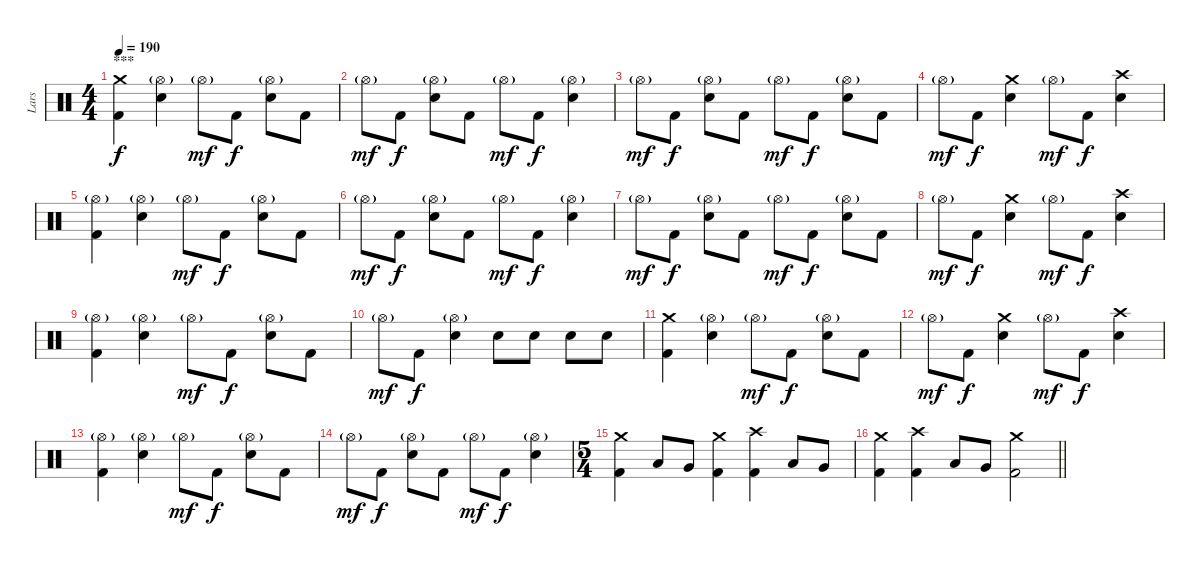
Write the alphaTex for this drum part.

\track ("Lars" "Lars") {instrument percussion}
\staff {score}
\articulation defaults
\ts (4 4)
\section ("" "***")
\tempo 190
\clef neutral
\ks c
("Crash medium (hit)" "Kick (hit) 2").4{dy f} ("Hi-Hat (open)"{g} "Snare (hit) 2").4 "Hi-Hat (open)"{g}.8{dy mf} "Kick (hit) 2".8{dy f} ("Hi-Hat (open)"{g} "Snare (hit) 2").8 "Kick (hit) 2".8 |
"Hi-Hat (open)"{g}.8{dy mf} "Kick (hit) 2".8{dy f} ("Hi-Hat (open)"{g} "Snare (hit) 2").8 "Kick (hit) 2".8 "Hi-Hat (open)"{g}.8{dy mf} "Kick (hit) 2".8{dy f} ("Hi-Hat (open)"{g} "Snare (hit) 2").4 |
"Hi-Hat (open)"{g}.8{dy mf} "Kick (hit) 2".8{dy f} ("Hi-Hat (open)"{g} "Snare (hit) 2").8 "Kick (hit) 2".8 "Hi-Hat (open)"{g}.8{dy mf} "Kick (hit) 2".8{dy f} ("Hi-Hat (open)"{g} "Snare (hit) 2").8 "Kick (hit) 2".8 |
"Hi-Hat (open)"{g}.8{dy mf} "Kick (hit) 2".8{dy f} ("Crash medium (hit)" "Snare (hit) 2").4 "Hi-Hat (open)"{g}.8{dy mf} "Kick (hit) 2".8{dy f} ("Crash high (hit)" "Snare (hit) 2").4 |
("Hi-Hat (open)"{g} "Kick (hit) 2").4 ("Hi-Hat (open)"{g} "Snare (hit) 2").4 "Hi-Hat (open)"{g}.8{dy mf} "Kick (hit) 2".8{dy f} ("Hi-Hat (open)"{g} "Snare (hit) 2").8 "Kick (hit) 2".8 |
"Hi-Hat (open)"{g}.8{dy mf} "Kick (hit) 2".8{dy f} ("Hi-Hat (open)"{g} "Snare (hit) 2").8 "Kick (hit) 2".8 "Hi-Hat (open)"{g}.8{dy mf} "Kick (hit) 2".8{dy f} ("Hi-Hat (open)"{g} "Snare (hit) 2").4 |
"Hi-Hat (open)"{g}.8{dy mf} "Kick (hit) 2".8{dy f} ("Hi-Hat (open)"{g} "Snare (hit) 2").8 "Kick (hit) 2".8 "Hi-Hat (open)"{g}.8{dy mf} "Kick (hit) 2".8{dy f} ("Hi-Hat (open)"{g} "Snare (hit) 2").8 "Kick (hit) 2".8 |
"Hi-Hat (open)"{g}.8{dy mf} "Kick (hit) 2".8{dy f} ("Crash medium (hit)" "Snare (hit) 2").4 "Hi-Hat (open)"{g}.8{dy mf} "Kick (hit) 2".8{dy f} ("Crash high (hit)" "Snare (hit) 2").4 |
("Hi-Hat (open)"{g} "Kick (hit) 2").4 ("Hi-Hat (open)"{g} "Snare (hit) 2").4 "Hi-Hat (open)"{g}.8{dy mf} "Kick (hit) 2".8{dy f} ("Hi-Hat (open)"{g} "Snare (hit) 2").8 "Kick (hit) 2".8 |
"Hi-Hat (open)"{g}.8{dy mf} "Kick (hit) 2".8{dy f} ("Hi-Hat (open)"{g} "Snare (hit) 2").4 "Snare (hit) 2".8 "Snare (hit) 2".8 "Snare (hit) 2".8 "Snare (hit) 2".8 |
("Crash medium (hit)" "Kick (hit) 2").4 ("Hi-Hat (open)"{g} "Snare (hit) 2").4 "Hi-Hat (open)"{g}.8{dy mf} "Kick (hit) 2".8{dy f} ("Hi-Hat (open)"{g} "Snare (hit) 2").8 "Kick (hit) 2".8 |
"Hi-Hat (open)"{g}.8{dy mf} "Kick (hit) 2".8{dy f} ("Crash medium (hit)" "Snare (hit) 2").4 "Hi-Hat (open)"{g}.8{dy mf} "Kick (hit) 2".8{dy f} ("Crash high (hit)" "Snare (hit) 2").4 |
("Hi-Hat (open)"{g} "Kick (hit) 2").4 ("Hi-Hat (open)"{g} "Snare (hit) 2").4 "Hi-Hat (open)"{g}.8{dy mf} "Kick (hit) 2".8{dy f} ("Hi-Hat (open)"{g} "Snare (hit) 2").8 "Kick (hit) 2".8 |
"Hi-Hat (open)"{g}.8{dy mf} "Kick (hit) 2".8{dy f} ("Hi-Hat (open)"{g} "Snare (hit) 2").8 "Kick (hit) 2".8 "Hi-Hat (open)"{g}.8{dy mf} "Kick (hit) 2".8{dy f} ("Hi-Hat (open)"{g} "Snare (hit) 2").4 |
\ts (5 4)
("Crash medium (hit)" "Kick (hit) 2").4 "Low Tom (hit)".8 "Very Low Tom (hit)".8 ("Crash medium (hit)" "Kick (hit) 2").4 ("Crash high (hit)" "Kick (hit) 2").4 "Low Tom (hit)".8 "Very Low Tom (hit)".8 |
\barLineRight lightlight
("Crash medium (hit)" "Kick (hit) 2").4 ("Crash high (hit)" "Kick (hit) 2").4 "Low Tom (hit)".8 "Very Low Tom (hit)".8 ("Crash medium (hit)" "Kick (hit) 2").2
